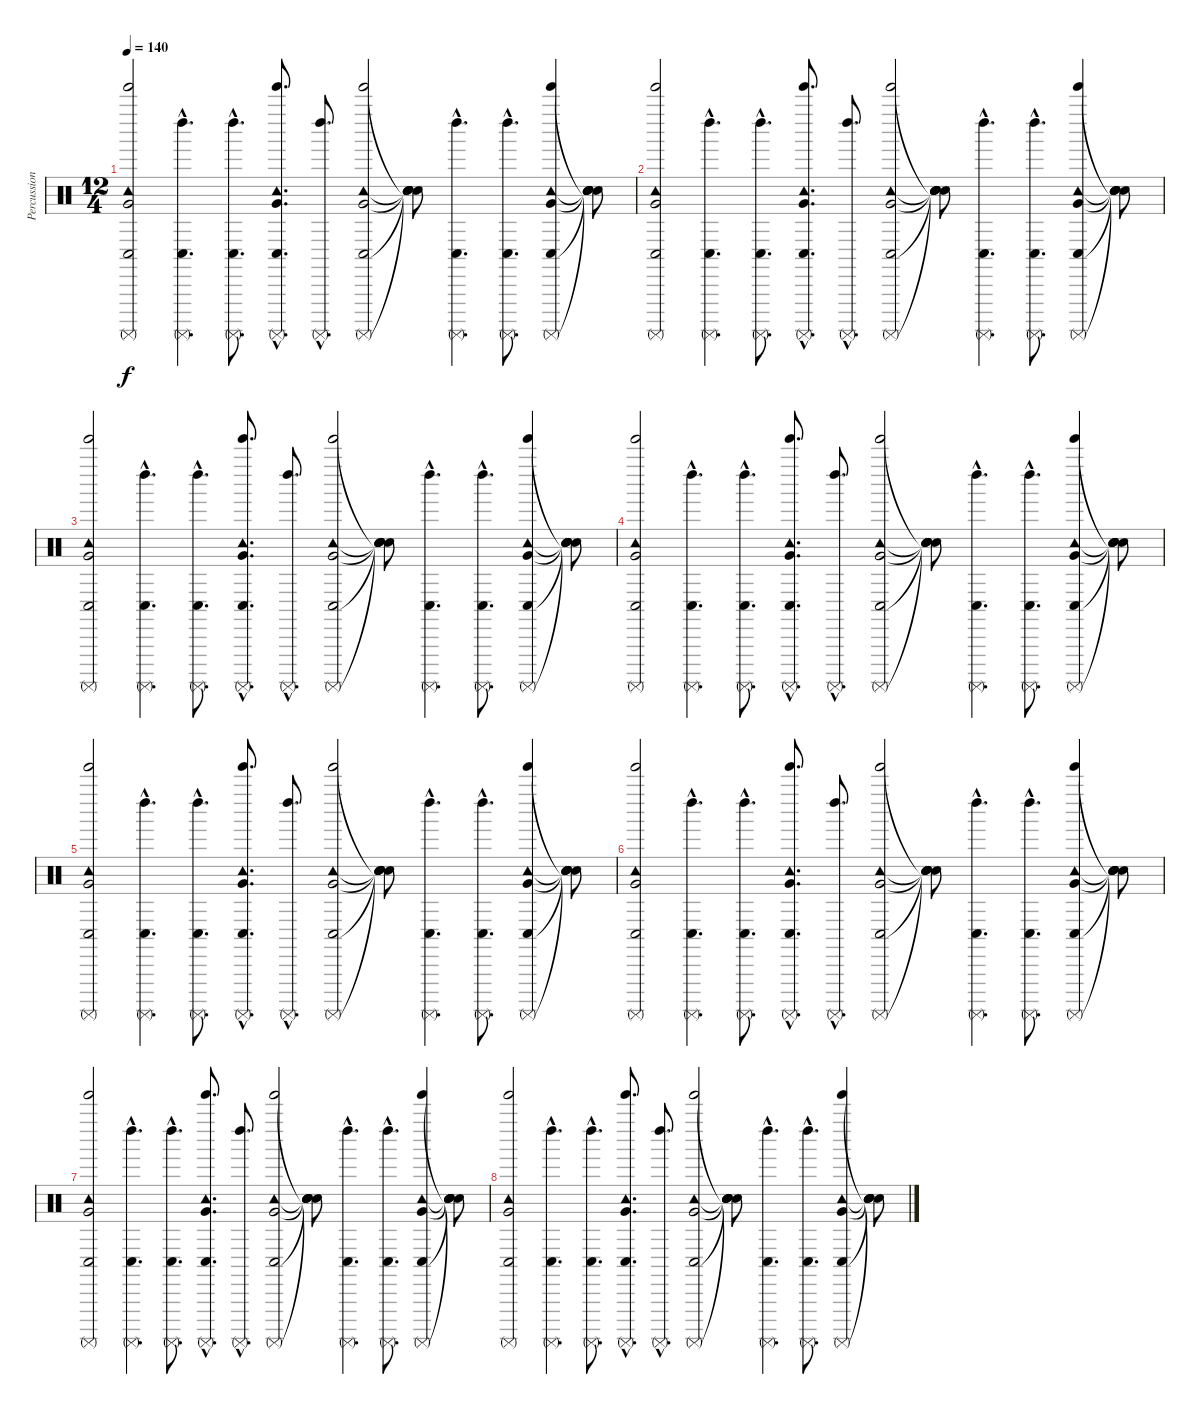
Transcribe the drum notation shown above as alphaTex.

\track ("Percussions" "Percussion") {instrument percussion}
\staff {score}
\articulation defaults
\ts (12 4)
\tempo 140
\clef neutral
\ks c
("Conga low (hit)" "Tinkle Bell (hit)" "Very Low Tom (hit)" "Tambourine (hit)" "Surdo (mute)").2{dy f} ("Conga low (hit)"{hac} "Left Maraca (hit)"{hac} "Surdo (mute)"{hac}).4{d} ("Conga low (hit)"{hac} "Left Maraca (hit)"{hac} "Surdo (mute)"{hac}).8{d} ("Conga low (hit)"{hac} "Tinkle Bell (hit)"{hac} "Very Low Tom (hit)"{hac} "Tambourine (hit)"{hac} "Surdo (mute)"{hac}).8{d} ("Left Maraca (hit)"{hac} "Surdo (mute)"{hac}).8{d} ("Conga low (hit)" "Tinkle Bell (hit)" "Very Low Tom (hit)" "Tambourine (hit)" "Surdo (mute)").2 ("Snare (hit)"{t} "Snare (hit)"{t} "Snare (hit)"{t} "Snare (hit)"{t} "Snare (hit)"{t}).8 ("Conga low (hit)"{hac} "Left Maraca (hit)"{hac} "Surdo (mute)"{hac}).4{d} ("Conga low (hit)"{hac} "Left Maraca (hit)"{hac} "Surdo (mute)"{hac}).8{d} ("Conga low (hit)" "Tinkle Bell (hit)" "Very Low Tom (hit)" "Tambourine (hit)" "Surdo (mute)").4 ("Snare (hit)"{t} "Snare (hit)"{t} "Snare (hit)"{t} "Snare (hit)"{t} "Snare (hit)"{t}).8 |
("Conga low (hit)" "Tinkle Bell (hit)" "Very Low Tom (hit)" "Tambourine (hit)" "Surdo (mute)").2 ("Conga low (hit)"{hac} "Left Maraca (hit)"{hac} "Surdo (mute)"{hac}).4{d} ("Conga low (hit)"{hac} "Left Maraca (hit)"{hac} "Surdo (mute)"{hac}).8{d} ("Conga low (hit)"{hac} "Tinkle Bell (hit)"{hac} "Very Low Tom (hit)"{hac} "Tambourine (hit)"{hac} "Surdo (mute)"{hac}).8{d} ("Left Maraca (hit)"{hac} "Surdo (mute)"{hac}).8{d} ("Conga low (hit)" "Tinkle Bell (hit)" "Very Low Tom (hit)" "Tambourine (hit)" "Surdo (mute)").2 ("Snare (hit)"{t} "Snare (hit)"{t} "Snare (hit)"{t} "Snare (hit)"{t} "Snare (hit)"{t}).8 ("Conga low (hit)"{hac} "Left Maraca (hit)"{hac} "Surdo (mute)"{hac}).4{d} ("Conga low (hit)"{hac} "Left Maraca (hit)"{hac} "Surdo (mute)"{hac}).8{d} ("Conga low (hit)" "Tinkle Bell (hit)" "Very Low Tom (hit)" "Tambourine (hit)" "Surdo (mute)").4 ("Snare (hit)"{t} "Snare (hit)"{t} "Snare (hit)"{t} "Snare (hit)"{t} "Snare (hit)"{t}).8 |
("Conga low (hit)" "Tinkle Bell (hit)" "Very Low Tom (hit)" "Tambourine (hit)" "Surdo (mute)").2 ("Conga low (hit)"{hac} "Left Maraca (hit)"{hac} "Surdo (mute)"{hac}).4{d} ("Conga low (hit)"{hac} "Left Maraca (hit)"{hac} "Surdo (mute)"{hac}).8{d} ("Conga low (hit)"{hac} "Tinkle Bell (hit)"{hac} "Very Low Tom (hit)"{hac} "Tambourine (hit)"{hac} "Surdo (mute)"{hac}).8{d} ("Left Maraca (hit)"{hac} "Surdo (mute)"{hac}).8{d} ("Conga low (hit)" "Tinkle Bell (hit)" "Very Low Tom (hit)" "Tambourine (hit)" "Surdo (mute)").2 ("Snare (hit)"{t} "Snare (hit)"{t} "Snare (hit)"{t} "Snare (hit)"{t} "Snare (hit)"{t}).8 ("Conga low (hit)"{hac} "Left Maraca (hit)"{hac} "Surdo (mute)"{hac}).4{d} ("Conga low (hit)"{hac} "Left Maraca (hit)"{hac} "Surdo (mute)"{hac}).8{d} ("Conga low (hit)" "Tinkle Bell (hit)" "Very Low Tom (hit)" "Tambourine (hit)" "Surdo (mute)").4 ("Snare (hit)"{t} "Snare (hit)"{t} "Snare (hit)"{t} "Snare (hit)"{t} "Snare (hit)"{t}).8 |
("Conga low (hit)" "Tinkle Bell (hit)" "Very Low Tom (hit)" "Tambourine (hit)" "Surdo (mute)").2 ("Conga low (hit)"{hac} "Left Maraca (hit)"{hac} "Surdo (mute)"{hac}).4{d} ("Conga low (hit)"{hac} "Left Maraca (hit)"{hac} "Surdo (mute)"{hac}).8{d} ("Conga low (hit)"{hac} "Tinkle Bell (hit)"{hac} "Very Low Tom (hit)"{hac} "Tambourine (hit)"{hac} "Surdo (mute)"{hac}).8{d} ("Left Maraca (hit)"{hac} "Surdo (mute)"{hac}).8{d} ("Conga low (hit)" "Tinkle Bell (hit)" "Very Low Tom (hit)" "Tambourine (hit)" "Surdo (mute)").2 ("Snare (hit)"{t} "Snare (hit)"{t} "Snare (hit)"{t} "Snare (hit)"{t} "Snare (hit)"{t}).8 ("Conga low (hit)"{hac} "Left Maraca (hit)"{hac} "Surdo (mute)"{hac}).4{d} ("Conga low (hit)"{hac} "Left Maraca (hit)"{hac} "Surdo (mute)"{hac}).8{d} ("Conga low (hit)" "Tinkle Bell (hit)" "Very Low Tom (hit)" "Tambourine (hit)" "Surdo (mute)").4 ("Snare (hit)"{t} "Snare (hit)"{t} "Snare (hit)"{t} "Snare (hit)"{t} "Snare (hit)"{t}).8 |
("Conga low (hit)" "Tinkle Bell (hit)" "Very Low Tom (hit)" "Tambourine (hit)" "Surdo (mute)").2 ("Conga low (hit)"{hac} "Left Maraca (hit)"{hac} "Surdo (mute)"{hac}).4{d} ("Conga low (hit)"{hac} "Left Maraca (hit)"{hac} "Surdo (mute)"{hac}).8{d} ("Conga low (hit)"{hac} "Tinkle Bell (hit)"{hac} "Very Low Tom (hit)"{hac} "Tambourine (hit)"{hac} "Surdo (mute)"{hac}).8{d} ("Left Maraca (hit)"{hac} "Surdo (mute)"{hac}).8{d} ("Conga low (hit)" "Tinkle Bell (hit)" "Very Low Tom (hit)" "Tambourine (hit)" "Surdo (mute)").2 ("Snare (hit)"{t} "Snare (hit)"{t} "Snare (hit)"{t} "Snare (hit)"{t} "Snare (hit)"{t}).8 ("Conga low (hit)"{hac} "Left Maraca (hit)"{hac} "Surdo (mute)"{hac}).4{d} ("Conga low (hit)"{hac} "Left Maraca (hit)"{hac} "Surdo (mute)"{hac}).8{d} ("Conga low (hit)" "Tinkle Bell (hit)" "Very Low Tom (hit)" "Tambourine (hit)" "Surdo (mute)").4 ("Snare (hit)"{t} "Snare (hit)"{t} "Snare (hit)"{t} "Snare (hit)"{t} "Snare (hit)"{t}).8 |
("Conga low (hit)" "Tinkle Bell (hit)" "Very Low Tom (hit)" "Tambourine (hit)" "Surdo (mute)").2 ("Conga low (hit)"{hac} "Left Maraca (hit)"{hac} "Surdo (mute)"{hac}).4{d} ("Conga low (hit)"{hac} "Left Maraca (hit)"{hac} "Surdo (mute)"{hac}).8{d} ("Conga low (hit)"{hac} "Tinkle Bell (hit)"{hac} "Very Low Tom (hit)"{hac} "Tambourine (hit)"{hac} "Surdo (mute)"{hac}).8{d} ("Left Maraca (hit)"{hac} "Surdo (mute)"{hac}).8{d} ("Conga low (hit)" "Tinkle Bell (hit)" "Very Low Tom (hit)" "Tambourine (hit)" "Surdo (mute)").2 ("Snare (hit)"{t} "Snare (hit)"{t} "Snare (hit)"{t} "Snare (hit)"{t} "Snare (hit)"{t}).8 ("Conga low (hit)"{hac} "Left Maraca (hit)"{hac} "Surdo (mute)"{hac}).4{d} ("Conga low (hit)"{hac} "Left Maraca (hit)"{hac} "Surdo (mute)"{hac}).8{d} ("Conga low (hit)" "Tinkle Bell (hit)" "Very Low Tom (hit)" "Tambourine (hit)" "Surdo (mute)").4 ("Snare (hit)"{t} "Snare (hit)"{t} "Snare (hit)"{t} "Snare (hit)"{t} "Snare (hit)"{t}).8 |
("Conga low (hit)" "Tinkle Bell (hit)" "Very Low Tom (hit)" "Tambourine (hit)" "Surdo (mute)").2 ("Conga low (hit)"{hac} "Left Maraca (hit)"{hac} "Surdo (mute)"{hac}).4{d} ("Conga low (hit)"{hac} "Left Maraca (hit)"{hac} "Surdo (mute)"{hac}).8{d} ("Conga low (hit)"{hac} "Tinkle Bell (hit)"{hac} "Very Low Tom (hit)"{hac} "Tambourine (hit)"{hac} "Surdo (mute)"{hac}).8{d} ("Left Maraca (hit)"{hac} "Surdo (mute)"{hac}).8{d} ("Conga low (hit)" "Tinkle Bell (hit)" "Very Low Tom (hit)" "Tambourine (hit)" "Surdo (mute)").2 ("Snare (hit)"{t} "Snare (hit)"{t} "Snare (hit)"{t} "Snare (hit)"{t} "Snare (hit)"{t}).8 ("Conga low (hit)"{hac} "Left Maraca (hit)"{hac} "Surdo (mute)"{hac}).4{d} ("Conga low (hit)"{hac} "Left Maraca (hit)"{hac} "Surdo (mute)"{hac}).8{d} ("Conga low (hit)" "Tinkle Bell (hit)" "Very Low Tom (hit)" "Tambourine (hit)" "Surdo (mute)").4 ("Snare (hit)"{t} "Snare (hit)"{t} "Snare (hit)"{t} "Snare (hit)"{t} "Snare (hit)"{t}).8 |
("Conga low (hit)" "Tinkle Bell (hit)" "Very Low Tom (hit)" "Tambourine (hit)" "Surdo (mute)").2 ("Conga low (hit)"{hac} "Left Maraca (hit)"{hac} "Surdo (mute)"{hac}).4{d} ("Conga low (hit)"{hac} "Left Maraca (hit)"{hac} "Surdo (mute)"{hac}).8{d} ("Conga low (hit)"{hac} "Tinkle Bell (hit)"{hac} "Very Low Tom (hit)"{hac} "Tambourine (hit)"{hac} "Surdo (mute)"{hac}).8{d} ("Left Maraca (hit)"{hac} "Surdo (mute)"{hac}).8{d} ("Conga low (hit)" "Tinkle Bell (hit)" "Very Low Tom (hit)" "Tambourine (hit)" "Surdo (mute)").2 ("Snare (hit)"{t} "Snare (hit)"{t} "Snare (hit)"{t} "Snare (hit)"{t} "Snare (hit)"{t}).8 ("Conga low (hit)"{hac} "Left Maraca (hit)"{hac} "Surdo (mute)"{hac}).4{d} ("Conga low (hit)"{hac} "Left Maraca (hit)"{hac} "Surdo (mute)"{hac}).8{d} ("Conga low (hit)" "Tinkle Bell (hit)" "Very Low Tom (hit)" "Tambourine (hit)" "Surdo (mute)").4 ("Snare (hit)"{t} "Snare (hit)"{t} "Snare (hit)"{t} "Snare (hit)"{t} "Snare (hit)"{t}).8
